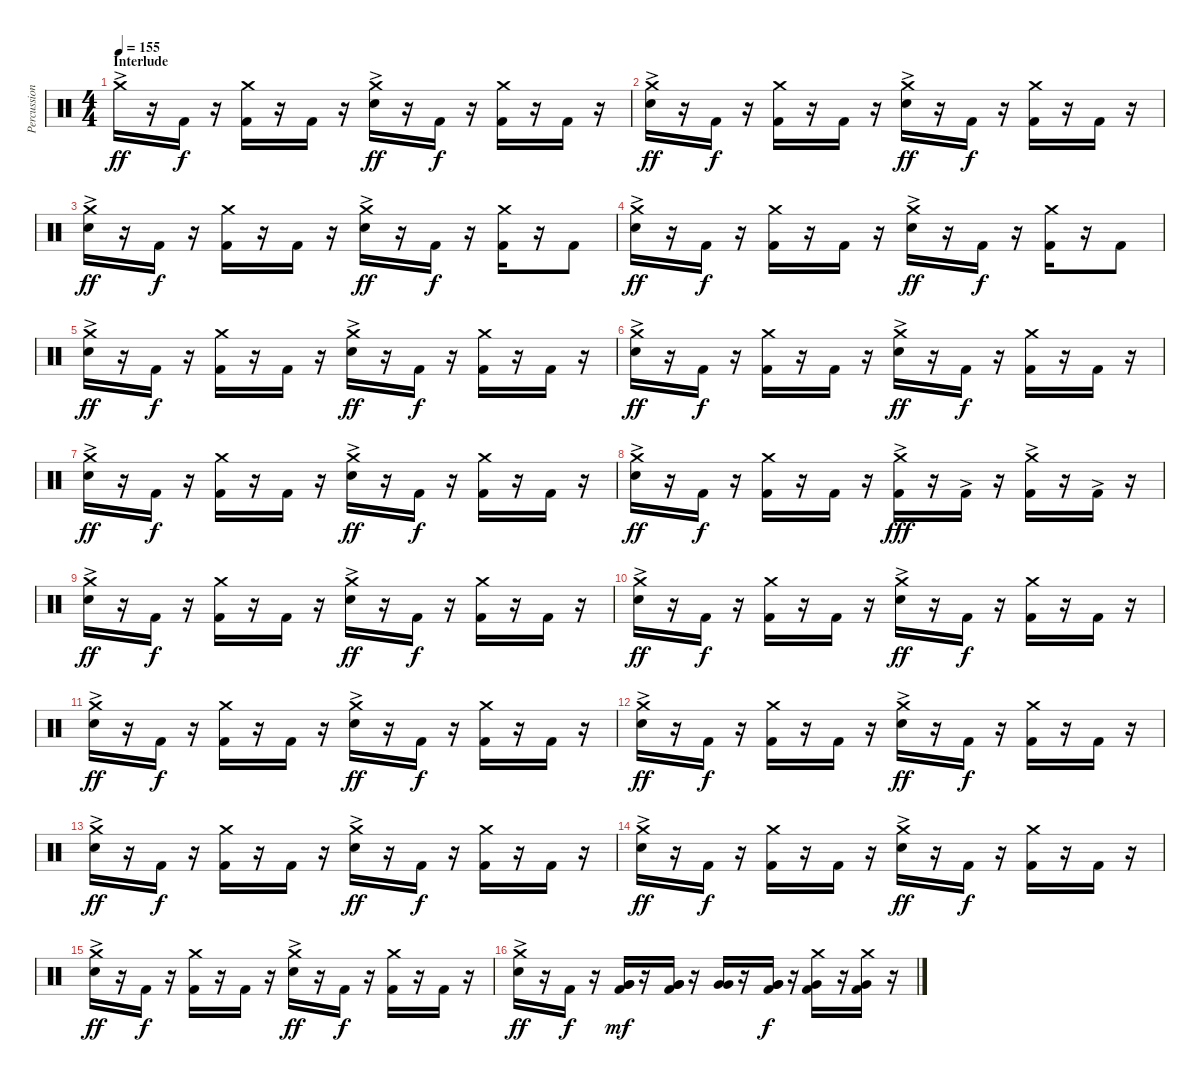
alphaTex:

\track ("Percussion (Mike Oliver)" "Percussion") {instrument percussion}
\staff {score}
\articulation defaults
\ts (4 4)
\section ("" "Interlude")
\tempo 155
\clef neutral
\ks c "Crash medium (hit)"{ac}.16{dy ff}
r.16 "Kick (hit) 2".16{dy f} r.16 ("Crash medium (hit)" "Kick (hit) 2").16 r.16 "Kick (hit) 2".16 r.16 ("Crash medium (hit)"{ac} "Snare (hit) 2"{ac}).16{dy ff} r.16 "Kick (hit) 2".16{dy f} r.16 ("Crash medium (hit)" "Kick (hit) 2").16 r.16 "Kick (hit) 2".16 r.16 |
("Crash medium (hit)"{ac} "Snare (hit) 2"{ac}).16{dy ff} r.16 "Kick (hit) 2".16{dy f} r.16 ("Crash medium (hit)" "Kick (hit) 2").16 r.16 "Kick (hit) 2".16 r.16 ("Crash medium (hit)"{ac} "Snare (hit) 2"{ac}).16{dy ff} r.16 "Kick (hit) 2".16{dy f} r.16 ("Crash medium (hit)" "Kick (hit) 2").16 r.16 "Kick (hit) 2".16 r.16 |
("Crash medium (hit)"{ac} "Snare (hit) 2"{ac}).16{dy ff} r.16 "Kick (hit) 2".16{dy f} r.16 ("Crash medium (hit)" "Kick (hit) 2").16 r.16 "Kick (hit) 2".16 r.16 ("Crash medium (hit)"{ac} "Snare (hit) 2"{ac}).16{dy ff} r.16 "Kick (hit) 2".16{dy f} r.16 ("Crash medium (hit)" "Kick (hit) 2").16 r.16 "Kick (hit) 2".8 |
("Crash medium (hit)"{ac} "Snare (hit) 2"{ac}).16{dy ff} r.16 "Kick (hit) 2".16{dy f} r.16 ("Crash medium (hit)" "Kick (hit) 2").16 r.16 "Kick (hit) 2".16 r.16 ("Crash medium (hit)"{ac} "Snare (hit) 2"{ac}).16{dy ff} r.16 "Kick (hit) 2".16{dy f} r.16 ("Crash medium (hit)" "Kick (hit) 2").16 r.16 "Kick (hit) 2".8 |
("Crash medium (hit)"{ac} "Snare (hit) 2"{ac}).16{dy ff} r.16 "Kick (hit) 2".16{dy f} r.16 ("Crash medium (hit)" "Kick (hit) 2").16 r.16 "Kick (hit) 2".16 r.16 ("Crash medium (hit)"{ac} "Snare (hit) 2"{ac}).16{dy ff} r.16 "Kick (hit) 2".16{dy f} r.16 ("Crash medium (hit)" "Kick (hit) 2").16 r.16 "Kick (hit) 2".16 r.16 |
("Crash medium (hit)"{ac} "Snare (hit) 2"{ac}).16{dy ff} r.16 "Kick (hit) 2".16{dy f} r.16 ("Crash medium (hit)" "Kick (hit) 2").16 r.16 "Kick (hit) 2".16 r.16 ("Crash medium (hit)"{ac} "Snare (hit) 2"{ac}).16{dy ff} r.16 "Kick (hit) 2".16{dy f} r.16 ("Crash medium (hit)" "Kick (hit) 2").16 r.16 "Kick (hit) 2".16 r.16 |
("Crash medium (hit)"{ac} "Snare (hit) 2"{ac}).16{dy ff} r.16 "Kick (hit) 2".16{dy f} r.16 ("Crash medium (hit)" "Kick (hit) 2").16 r.16 "Kick (hit) 2".16 r.16 ("Crash medium (hit)"{ac} "Snare (hit) 2"{ac}).16{dy ff} r.16 "Kick (hit) 2".16{dy f} r.16 ("Crash medium (hit)" "Kick (hit) 2").16 r.16 "Kick (hit) 2".16 r.16 |
("Crash medium (hit)"{ac} "Snare (hit) 2"{ac}).16{dy ff} r.16 "Kick (hit) 2".16{dy f} r.16 ("Crash medium (hit)" "Kick (hit) 2").16 r.16 "Kick (hit) 2".16 r.16 ("Crash medium (hit)"{ac} "Kick (hit) 2"{ac}).16{dy fff} r.16 "Kick (hit) 2"{ac}.16 r.16 ("Crash medium (hit)" "Kick (hit) 2"{ac}).16 r.16 "Kick (hit) 2"{ac}.16 r.16 |
("Crash medium (hit)"{ac} "Snare (hit) 2"{ac}).16{dy ff} r.16 "Kick (hit) 2".16{dy f} r.16 ("Crash medium (hit)" "Kick (hit) 2").16 r.16 "Kick (hit) 2".16 r.16 ("Crash medium (hit)"{ac} "Snare (hit) 2"{ac}).16{dy ff} r.16 "Kick (hit) 2".16{dy f} r.16 ("Crash medium (hit)" "Kick (hit) 2").16 r.16 "Kick (hit) 2".16 r.16 |
("Crash medium (hit)"{ac} "Snare (hit) 2"{ac}).16{dy ff} r.16 "Kick (hit) 2".16{dy f} r.16 ("Crash medium (hit)" "Kick (hit) 2").16 r.16 "Kick (hit) 2".16 r.16 ("Crash medium (hit)"{ac} "Snare (hit) 2"{ac}).16{dy ff} r.16 "Kick (hit) 2".16{dy f} r.16 ("Crash medium (hit)" "Kick (hit) 2").16 r.16 "Kick (hit) 2".16 r.16 |
("Crash medium (hit)"{ac} "Snare (hit) 2"{ac}).16{dy ff} r.16 "Kick (hit) 2".16{dy f} r.16 ("Crash medium (hit)" "Kick (hit) 2").16 r.16 "Kick (hit) 2".16 r.16 ("Crash medium (hit)"{ac} "Snare (hit) 2"{ac}).16{dy ff} r.16 "Kick (hit) 2".16{dy f} r.16 ("Crash medium (hit)" "Kick (hit) 2").16 r.16 "Kick (hit) 2".16 r.16 |
("Crash medium (hit)"{ac} "Snare (hit) 2"{ac}).16{dy ff} r.16 "Kick (hit) 2".16{dy f} r.16 ("Crash medium (hit)" "Kick (hit) 2").16 r.16 "Kick (hit) 2".16 r.16 ("Crash medium (hit)"{ac} "Snare (hit) 2"{ac}).16{dy ff} r.16 "Kick (hit) 2".16{dy f} r.16 ("Crash medium (hit)" "Kick (hit) 2").16 r.16 "Kick (hit) 2".16 r.16 |
("Crash medium (hit)"{ac} "Snare (hit) 2"{ac}).16{dy ff} r.16 "Kick (hit) 2".16{dy f} r.16 ("Crash medium (hit)" "Kick (hit) 2").16 r.16 "Kick (hit) 2".16 r.16 ("Crash medium (hit)"{ac} "Snare (hit) 2"{ac}).16{dy ff} r.16 "Kick (hit) 2".16{dy f} r.16 ("Crash medium (hit)" "Kick (hit) 2").16 r.16 "Kick (hit) 2".16 r.16 |
("Crash medium (hit)"{ac} "Snare (hit) 2"{ac}).16{dy ff} r.16 "Kick (hit) 2".16{dy f} r.16 ("Crash medium (hit)" "Kick (hit) 2").16 r.16 "Kick (hit) 2".16 r.16 ("Crash medium (hit)"{ac} "Snare (hit) 2"{ac}).16{dy ff} r.16 "Kick (hit) 2".16{dy f} r.16 ("Crash medium (hit)" "Kick (hit) 2").16 r.16 "Kick (hit) 2".16 r.16 |
("Crash medium (hit)"{ac} "Snare (hit) 2"{ac}).16{dy ff} r.16 "Kick (hit) 2".16{dy f} r.16 ("Crash medium (hit)" "Kick (hit) 2").16 r.16 "Kick (hit) 2".16 r.16 ("Crash medium (hit)"{ac} "Snare (hit) 2"{ac}).16{dy ff} r.16 "Kick (hit) 2".16{dy f} r.16 ("Crash medium (hit)" "Kick (hit) 2").16 r.16 "Kick (hit) 2".16 r.16 |
("Crash medium (hit)"{ac} "Snare (hit) 2"{ac}).16{dy ff} r.16 "Kick (hit) 2".16{dy f} r.16 ("Very Low Tom (hit)" "Very Low Tom (hit)" "Kick (hit) 2").16{dy mf} r.16 ("Very Low Tom (hit)" "Very Low Tom (hit)" "Kick (hit) 2").16 r.16 ("Very Low Tom (hit)" "Very Low Tom (hit)").16 r.16 ("Very Low Tom (hit)" "Very Low Tom (hit)" "Kick (hit) 2").16{dy f} r.16 ("Crash medium (hit)" "Very Low Tom (hit)" "Kick (hit) 2").16 r.16 ("Crash medium (hit)" "Very Low Tom (hit)" "Kick (hit) 2").16 r.16
